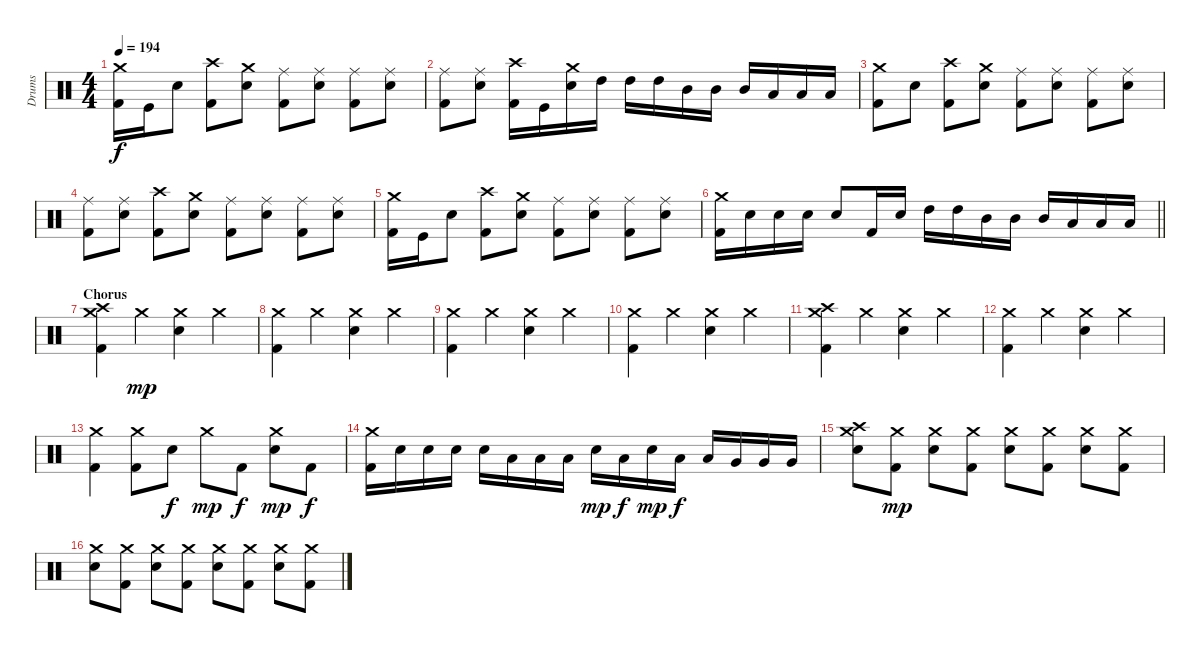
\track ("Drums" "Drums") {instrument percussion}
\staff {score}
\articulation defaults
\ts (4 4)
\tempo 194
\clef neutral
\ks c
("Crash medium (hit)" "Kick (hit) 2").16{dy f} "Kick (hit)".16 "Snare (hit) 2".8 ("Crash high (hit)" "Kick (hit) 2").8 ("Crash medium (hit)" "Snare (hit) 2").8 ("Ride (middle)" "Kick (hit) 2").8 ("Ride (middle)" "Snare (hit) 2").8 ("Ride (middle)" "Kick (hit) 2").8 ("Ride (middle)" "Snare (hit) 2").8 |
("Ride (middle)" "Kick (hit) 2").8 ("Ride (middle)" "Snare (hit) 2").8 ("Crash high (hit)" "Kick (hit) 2").16 "Kick (hit)".16 ("Crash medium (hit)" "Snare (hit) 2").16 "High Tom (hit)".16 "High Tom (hit)".16 "High Tom (hit)".16 "Mid Tom (hit)".16 "Mid Tom (hit)".16 "Mid Tom (hit)".16 "Low Tom (hit)".16 "Low Tom (hit)".16 "Low Tom (hit)".16 |
("Crash medium (hit)" "Kick (hit) 2").8 "Snare (hit) 2".8 ("Crash high (hit)" "Kick (hit) 2").8 ("Crash medium (hit)" "Snare (hit) 2").8 ("Ride (middle)" "Kick (hit) 2").8 ("Ride (middle)" "Snare (hit) 2").8 ("Ride (middle)" "Kick (hit) 2").8 ("Ride (middle)" "Snare (hit) 2").8 |
("Ride (middle)" "Kick (hit) 2").8 ("Ride (middle)" "Snare (hit) 2").8 ("Crash high (hit)" "Kick (hit) 2").8 ("Crash medium (hit)" "Snare (hit) 2").8 ("Ride (middle)" "Kick (hit) 2").8 ("Ride (middle)" "Snare (hit) 2").8 ("Ride (middle)" "Kick (hit) 2").8 ("Ride (middle)" "Snare (hit) 2").8 |
("Crash medium (hit)" "Kick (hit) 2").16 "Kick (hit)".16 "Snare (hit) 2".8 ("Crash high (hit)" "Kick (hit) 2").8 ("Crash medium (hit)" "Snare (hit) 2").8 ("Ride (middle)" "Kick (hit) 2").8 ("Ride (middle)" "Snare (hit) 2").8 ("Ride (middle)" "Kick (hit) 2").8 ("Ride (middle)" "Snare (hit) 2").8 |
\barLineRight lightlight
("Crash medium (hit)" "Kick (hit) 2").16 "Snare (hit) 2".16 "Snare (hit) 2".16 "Snare (hit) 2".16 "Snare (hit) 2".8 "Kick (hit) 2".16 "Snare (hit) 2".16 "High Tom (hit)".16 "High Tom (hit)".16 "Mid Tom (hit)".16 "Mid Tom (hit)".16 "Mid Tom (hit)".16 "Low Tom (hit)".16 "Low Tom (hit)".16 "Low Tom (hit)".16 |
\section ("" "Chorus")
("Crash medium (hit)" "Crash high (hit)" "Kick (hit) 2").4 "Crash medium (hit)".4{dy mp} ("Crash medium (hit)" "Snare (hit) 2").4 "Crash medium (hit)".4 |
("Crash medium (hit)" "Kick (hit) 2").4 "Crash medium (hit)".4 ("Crash medium (hit)" "Snare (hit) 2").4 "Crash medium (hit)".4 |
("Crash medium (hit)" "Kick (hit) 2").4 "Crash medium (hit)".4 ("Crash medium (hit)" "Snare (hit) 2").4 "Crash medium (hit)".4 |
("Crash medium (hit)" "Kick (hit) 2").4 "Crash medium (hit)".4 ("Crash medium (hit)" "Snare (hit) 2").4 "Crash medium (hit)".4 |
("Crash medium (hit)" "Crash high (hit)" "Kick (hit) 2").4 "Crash medium (hit)".4 ("Crash medium (hit)" "Snare (hit) 2").4 "Crash medium (hit)".4 |
("Crash medium (hit)" "Kick (hit) 2").4 "Crash medium (hit)".4 ("Crash medium (hit)" "Snare (hit) 2").4 "Crash medium (hit)".4 |
("Crash medium (hit)" "Kick (hit) 2").4 ("Crash medium (hit)" "Kick (hit) 2").8 "Snare (hit) 2".8{dy f} "Crash medium (hit)".8{dy mp} "Kick (hit) 2".8{dy f} ("Crash medium (hit)" "Snare (hit) 2").8{dy mp} "Kick (hit) 2".8{dy f} |
("Crash medium (hit)" "Kick (hit) 2").16 "Snare (hit) 2".16 "Snare (hit) 2".16 "Snare (hit) 2".16 "Snare (hit) 2".16 "Low Tom (hit)".16 "Low Tom (hit)".16 "Low Tom (hit)".16 "Snare (hit) 2".16{dy mp} "Low Tom (hit)".16{dy f} "Snare (hit) 2".16{dy mp} "Low Tom (hit)".16{dy f} "Low Tom (hit)".16 "Very Low Tom (hit)".16 "Very Low Tom (hit)".16 "Very Low Tom (hit)".16 |
("Crash medium (hit)" "Crash high (hit)" "Snare (hit) 2").8 ("Crash medium (hit)" "Kick (hit) 2").8{dy mp} ("Crash medium (hit)" "Snare (hit) 2").8 ("Crash medium (hit)" "Kick (hit) 2").8 ("Crash medium (hit)" "Snare (hit) 2").8 ("Crash medium (hit)" "Kick (hit) 2").8 ("Crash medium (hit)" "Snare (hit) 2").8 ("Crash medium (hit)" "Kick (hit) 2").8 |
("Crash medium (hit)" "Snare (hit) 2").8 ("Crash medium (hit)" "Kick (hit) 2").8 ("Crash medium (hit)" "Snare (hit) 2").8 ("Crash medium (hit)" "Kick (hit) 2").8 ("Crash medium (hit)" "Snare (hit) 2").8 ("Crash medium (hit)" "Kick (hit) 2").8 ("Crash medium (hit)" "Snare (hit) 2").8 ("Crash medium (hit)" "Kick (hit) 2").8
